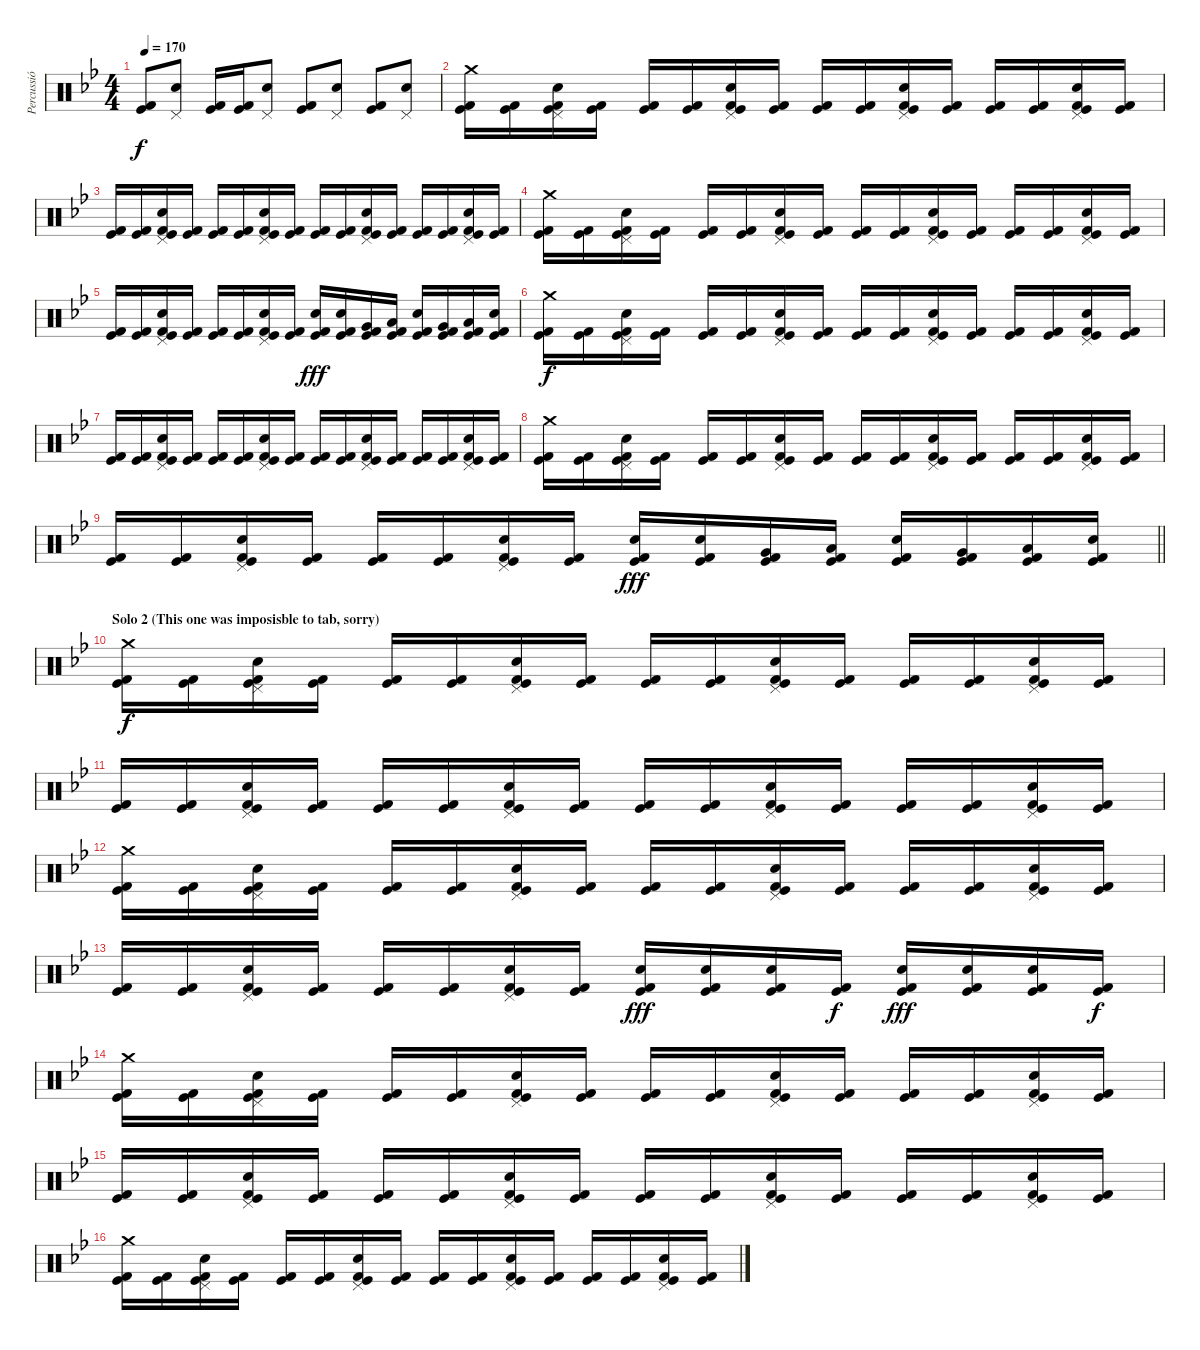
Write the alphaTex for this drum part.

\track ("Percussió" "Percussió") {instrument percussion}
\staff {score}
\articulation defaults
\ts (4 4)
\tempo 170
\clef neutral
\ks gminor
("Kick (hit)" "Kick (hit) 2").8{dy f} ("Pedal Hi-Hat (hit)" "Electric Snare (hit)").8 ("Kick (hit)" "Kick (hit) 2").16 ("Kick (hit)" "Kick (hit) 2").16 ("Pedal Hi-Hat (hit)" "Electric Snare (hit)").8 ("Kick (hit)" "Kick (hit) 2").8 ("Pedal Hi-Hat (hit)" "Electric Snare (hit)").8 ("Kick (hit)" "Kick (hit) 2").8 ("Pedal Hi-Hat (hit)" "Electric Snare (hit)").8 |
("Crash medium (hit)" "Kick (hit)" "Kick (hit) 2").16 ("Kick (hit)" "Kick (hit) 2").16 ("Pedal Hi-Hat (hit)" "Electric Snare (hit)" "Kick (hit)" "Kick (hit) 2").16 ("Kick (hit)" "Kick (hit) 2").16 ("Kick (hit)" "Kick (hit) 2").16 ("Kick (hit)" "Kick (hit) 2").16 ("Pedal Hi-Hat (hit)" "Electric Snare (hit)" "Kick (hit)" "Kick (hit) 2").16 ("Kick (hit)" "Kick (hit) 2").16 ("Kick (hit)" "Kick (hit) 2").16 ("Kick (hit)" "Kick (hit) 2").16 ("Pedal Hi-Hat (hit)" "Electric Snare (hit)" "Kick (hit)" "Kick (hit) 2").16 ("Kick (hit)" "Kick (hit) 2").16 ("Kick (hit)" "Kick (hit) 2").16 ("Kick (hit)" "Kick (hit) 2").16 ("Pedal Hi-Hat (hit)" "Electric Snare (hit)" "Kick (hit)" "Kick (hit) 2").16 ("Kick (hit)" "Kick (hit) 2").16 |
("Kick (hit)" "Kick (hit) 2").16 ("Kick (hit)" "Kick (hit) 2").16 ("Pedal Hi-Hat (hit)" "Electric Snare (hit)" "Kick (hit)" "Kick (hit) 2").16 ("Kick (hit)" "Kick (hit) 2").16 ("Kick (hit)" "Kick (hit) 2").16 ("Kick (hit)" "Kick (hit) 2").16 ("Pedal Hi-Hat (hit)" "Electric Snare (hit)" "Kick (hit)" "Kick (hit) 2").16 ("Kick (hit)" "Kick (hit) 2").16 ("Kick (hit)" "Kick (hit) 2").16 ("Kick (hit)" "Kick (hit) 2").16 ("Pedal Hi-Hat (hit)" "Electric Snare (hit)" "Kick (hit)" "Kick (hit) 2").16 ("Kick (hit)" "Kick (hit) 2").16 ("Kick (hit)" "Kick (hit) 2").16 ("Kick (hit)" "Kick (hit) 2").16 ("Pedal Hi-Hat (hit)" "Electric Snare (hit)" "Kick (hit)" "Kick (hit) 2").16 ("Kick (hit)" "Kick (hit) 2").16 |
("Crash medium (hit)" "Kick (hit)" "Kick (hit) 2").16 ("Kick (hit)" "Kick (hit) 2").16 ("Pedal Hi-Hat (hit)" "Electric Snare (hit)" "Kick (hit)" "Kick (hit) 2").16 ("Kick (hit)" "Kick (hit) 2").16 ("Kick (hit)" "Kick (hit) 2").16 ("Kick (hit)" "Kick (hit) 2").16 ("Pedal Hi-Hat (hit)" "Electric Snare (hit)" "Kick (hit)" "Kick (hit) 2").16 ("Kick (hit)" "Kick (hit) 2").16 ("Kick (hit)" "Kick (hit) 2").16 ("Kick (hit)" "Kick (hit) 2").16 ("Pedal Hi-Hat (hit)" "Electric Snare (hit)" "Kick (hit)" "Kick (hit) 2").16 ("Kick (hit)" "Kick (hit) 2").16 ("Kick (hit)" "Kick (hit) 2").16 ("Kick (hit)" "Kick (hit) 2").16 ("Pedal Hi-Hat (hit)" "Electric Snare (hit)" "Kick (hit)" "Kick (hit) 2").16 ("Kick (hit)" "Kick (hit) 2").16 |
("Kick (hit)" "Kick (hit) 2").16 ("Kick (hit)" "Kick (hit) 2").16 ("Pedal Hi-Hat (hit)" "Electric Snare (hit)" "Kick (hit)" "Kick (hit) 2").16 ("Kick (hit)" "Kick (hit) 2").16 ("Kick (hit)" "Kick (hit) 2").16 ("Kick (hit)" "Kick (hit) 2").16 ("Pedal Hi-Hat (hit)" "Electric Snare (hit)" "Kick (hit)" "Kick (hit) 2").16 ("Kick (hit)" "Kick (hit) 2").16 ("Electric Snare (hit)" "Kick (hit)" "Kick (hit) 2").16{dy fff} ("Electric Snare (hit)" "Kick (hit)" "Kick (hit) 2").16 ("Very Low Tom (hit)" "Kick (hit)" "Kick (hit) 2").16 ("Low Tom (hit)" "Kick (hit)" "Kick (hit) 2").16 ("Electric Snare (hit)" "Kick (hit)" "Kick (hit) 2").16 ("Very Low Tom (hit)" "Kick (hit)" "Kick (hit) 2").16 ("Low Floor Tom (hit)" "Kick (hit)" "Kick (hit) 2").16 ("Electric Snare (hit)" "Kick (hit)" "Kick (hit) 2").16 |
("Crash medium (hit)" "Kick (hit)" "Kick (hit) 2").16{dy f} ("Kick (hit)" "Kick (hit) 2").16 ("Pedal Hi-Hat (hit)" "Electric Snare (hit)" "Kick (hit)" "Kick (hit) 2").16 ("Kick (hit)" "Kick (hit) 2").16 ("Kick (hit)" "Kick (hit) 2").16 ("Kick (hit)" "Kick (hit) 2").16 ("Pedal Hi-Hat (hit)" "Electric Snare (hit)" "Kick (hit)" "Kick (hit) 2").16 ("Kick (hit)" "Kick (hit) 2").16 ("Kick (hit)" "Kick (hit) 2").16 ("Kick (hit)" "Kick (hit) 2").16 ("Pedal Hi-Hat (hit)" "Electric Snare (hit)" "Kick (hit)" "Kick (hit) 2").16 ("Kick (hit)" "Kick (hit) 2").16 ("Kick (hit)" "Kick (hit) 2").16 ("Kick (hit)" "Kick (hit) 2").16 ("Pedal Hi-Hat (hit)" "Electric Snare (hit)" "Kick (hit)" "Kick (hit) 2").16 ("Kick (hit)" "Kick (hit) 2").16 |
("Kick (hit)" "Kick (hit) 2").16 ("Kick (hit)" "Kick (hit) 2").16 ("Pedal Hi-Hat (hit)" "Electric Snare (hit)" "Kick (hit)" "Kick (hit) 2").16 ("Kick (hit)" "Kick (hit) 2").16 ("Kick (hit)" "Kick (hit) 2").16 ("Kick (hit)" "Kick (hit) 2").16 ("Pedal Hi-Hat (hit)" "Electric Snare (hit)" "Kick (hit)" "Kick (hit) 2").16 ("Kick (hit)" "Kick (hit) 2").16 ("Kick (hit)" "Kick (hit) 2").16 ("Kick (hit)" "Kick (hit) 2").16 ("Pedal Hi-Hat (hit)" "Electric Snare (hit)" "Kick (hit)" "Kick (hit) 2").16 ("Kick (hit)" "Kick (hit) 2").16 ("Kick (hit)" "Kick (hit) 2").16 ("Kick (hit)" "Kick (hit) 2").16 ("Pedal Hi-Hat (hit)" "Electric Snare (hit)" "Kick (hit)" "Kick (hit) 2").16 ("Kick (hit)" "Kick (hit) 2").16 |
("Crash medium (hit)" "Kick (hit)" "Kick (hit) 2").16 ("Kick (hit)" "Kick (hit) 2").16 ("Pedal Hi-Hat (hit)" "Electric Snare (hit)" "Kick (hit)" "Kick (hit) 2").16 ("Kick (hit)" "Kick (hit) 2").16 ("Kick (hit)" "Kick (hit) 2").16 ("Kick (hit)" "Kick (hit) 2").16 ("Pedal Hi-Hat (hit)" "Electric Snare (hit)" "Kick (hit)" "Kick (hit) 2").16 ("Kick (hit)" "Kick (hit) 2").16 ("Kick (hit)" "Kick (hit) 2").16 ("Kick (hit)" "Kick (hit) 2").16 ("Pedal Hi-Hat (hit)" "Electric Snare (hit)" "Kick (hit)" "Kick (hit) 2").16 ("Kick (hit)" "Kick (hit) 2").16 ("Kick (hit)" "Kick (hit) 2").16 ("Kick (hit)" "Kick (hit) 2").16 ("Pedal Hi-Hat (hit)" "Electric Snare (hit)" "Kick (hit)" "Kick (hit) 2").16 ("Kick (hit)" "Kick (hit) 2").16 |
\barLineRight lightlight
("Kick (hit)" "Kick (hit) 2").16 ("Kick (hit)" "Kick (hit) 2").16 ("Pedal Hi-Hat (hit)" "Electric Snare (hit)" "Kick (hit)" "Kick (hit) 2").16 ("Kick (hit)" "Kick (hit) 2").16 ("Kick (hit)" "Kick (hit) 2").16 ("Kick (hit)" "Kick (hit) 2").16 ("Pedal Hi-Hat (hit)" "Electric Snare (hit)" "Kick (hit)" "Kick (hit) 2").16 ("Kick (hit)" "Kick (hit) 2").16 ("Electric Snare (hit)" "Kick (hit)" "Kick (hit) 2").16{dy fff} ("Electric Snare (hit)" "Kick (hit)" "Kick (hit) 2").16 ("Very Low Tom (hit)" "Kick (hit)" "Kick (hit) 2").16 ("Low Tom (hit)" "Kick (hit)" "Kick (hit) 2").16 ("Electric Snare (hit)" "Kick (hit)" "Kick (hit) 2").16 ("Very Low Tom (hit)" "Kick (hit)" "Kick (hit) 2").16 ("Low Floor Tom (hit)" "Kick (hit)" "Kick (hit) 2").16 ("Electric Snare (hit)" "Kick (hit)" "Kick (hit) 2").16 |
\section ("" "Solo 2 (This one was imposisble to tab, sorry)")
("Crash medium (hit)" "Kick (hit)" "Kick (hit) 2").16{dy f} ("Kick (hit)" "Kick (hit) 2").16 ("Pedal Hi-Hat (hit)" "Electric Snare (hit)" "Kick (hit)" "Kick (hit) 2").16 ("Kick (hit)" "Kick (hit) 2").16 ("Kick (hit)" "Kick (hit) 2").16 ("Kick (hit)" "Kick (hit) 2").16 ("Pedal Hi-Hat (hit)" "Electric Snare (hit)" "Kick (hit)" "Kick (hit) 2").16 ("Kick (hit)" "Kick (hit) 2").16 ("Kick (hit)" "Kick (hit) 2").16 ("Kick (hit)" "Kick (hit) 2").16 ("Pedal Hi-Hat (hit)" "Electric Snare (hit)" "Kick (hit)" "Kick (hit) 2").16 ("Kick (hit)" "Kick (hit) 2").16 ("Kick (hit)" "Kick (hit) 2").16 ("Kick (hit)" "Kick (hit) 2").16 ("Pedal Hi-Hat (hit)" "Electric Snare (hit)" "Kick (hit)" "Kick (hit) 2").16 ("Kick (hit)" "Kick (hit) 2").16 |
("Kick (hit)" "Kick (hit) 2").16 ("Kick (hit)" "Kick (hit) 2").16 ("Pedal Hi-Hat (hit)" "Electric Snare (hit)" "Kick (hit)" "Kick (hit) 2").16 ("Kick (hit)" "Kick (hit) 2").16 ("Kick (hit)" "Kick (hit) 2").16 ("Kick (hit)" "Kick (hit) 2").16 ("Pedal Hi-Hat (hit)" "Electric Snare (hit)" "Kick (hit)" "Kick (hit) 2").16 ("Kick (hit)" "Kick (hit) 2").16 ("Kick (hit)" "Kick (hit) 2").16 ("Kick (hit)" "Kick (hit) 2").16 ("Pedal Hi-Hat (hit)" "Electric Snare (hit)" "Kick (hit)" "Kick (hit) 2").16 ("Kick (hit)" "Kick (hit) 2").16 ("Kick (hit)" "Kick (hit) 2").16 ("Kick (hit)" "Kick (hit) 2").16 ("Pedal Hi-Hat (hit)" "Electric Snare (hit)" "Kick (hit)" "Kick (hit) 2").16 ("Kick (hit)" "Kick (hit) 2").16 |
("Crash medium (hit)" "Kick (hit)" "Kick (hit) 2").16 ("Kick (hit)" "Kick (hit) 2").16 ("Pedal Hi-Hat (hit)" "Electric Snare (hit)" "Kick (hit)" "Kick (hit) 2").16 ("Kick (hit)" "Kick (hit) 2").16 ("Kick (hit)" "Kick (hit) 2").16 ("Kick (hit)" "Kick (hit) 2").16 ("Pedal Hi-Hat (hit)" "Electric Snare (hit)" "Kick (hit)" "Kick (hit) 2").16 ("Kick (hit)" "Kick (hit) 2").16 ("Kick (hit)" "Kick (hit) 2").16 ("Kick (hit)" "Kick (hit) 2").16 ("Pedal Hi-Hat (hit)" "Electric Snare (hit)" "Kick (hit)" "Kick (hit) 2").16 ("Kick (hit)" "Kick (hit) 2").16 ("Kick (hit)" "Kick (hit) 2").16 ("Kick (hit)" "Kick (hit) 2").16 ("Pedal Hi-Hat (hit)" "Electric Snare (hit)" "Kick (hit)" "Kick (hit) 2").16 ("Kick (hit)" "Kick (hit) 2").16 |
("Kick (hit)" "Kick (hit) 2").16 ("Kick (hit)" "Kick (hit) 2").16 ("Pedal Hi-Hat (hit)" "Electric Snare (hit)" "Kick (hit)" "Kick (hit) 2").16 ("Kick (hit)" "Kick (hit) 2").16 ("Kick (hit)" "Kick (hit) 2").16 ("Kick (hit)" "Kick (hit) 2").16 ("Pedal Hi-Hat (hit)" "Electric Snare (hit)" "Kick (hit)" "Kick (hit) 2").16 ("Kick (hit)" "Kick (hit) 2").16 ("Electric Snare (hit)" "Kick (hit)" "Kick (hit) 2").16{dy fff} ("Electric Snare (hit)" "Kick (hit)" "Kick (hit) 2").16 ("Electric Snare (hit)" "Kick (hit)" "Kick (hit) 2").16 ("Kick (hit)" "Kick (hit) 2").16{dy f} ("Electric Snare (hit)" "Kick (hit)" "Kick (hit) 2").16{dy fff} ("Electric Snare (hit)" "Kick (hit)" "Kick (hit) 2").16 ("Electric Snare (hit)" "Kick (hit)" "Kick (hit) 2").16 ("Kick (hit)" "Kick (hit) 2").16{dy f} |
("Crash medium (hit)" "Kick (hit)" "Kick (hit) 2").16 ("Kick (hit)" "Kick (hit) 2").16 ("Pedal Hi-Hat (hit)" "Electric Snare (hit)" "Kick (hit)" "Kick (hit) 2").16 ("Kick (hit)" "Kick (hit) 2").16 ("Kick (hit)" "Kick (hit) 2").16 ("Kick (hit)" "Kick (hit) 2").16 ("Pedal Hi-Hat (hit)" "Electric Snare (hit)" "Kick (hit)" "Kick (hit) 2").16 ("Kick (hit)" "Kick (hit) 2").16 ("Kick (hit)" "Kick (hit) 2").16 ("Kick (hit)" "Kick (hit) 2").16 ("Pedal Hi-Hat (hit)" "Electric Snare (hit)" "Kick (hit)" "Kick (hit) 2").16 ("Kick (hit)" "Kick (hit) 2").16 ("Kick (hit)" "Kick (hit) 2").16 ("Kick (hit)" "Kick (hit) 2").16 ("Pedal Hi-Hat (hit)" "Electric Snare (hit)" "Kick (hit)" "Kick (hit) 2").16 ("Kick (hit)" "Kick (hit) 2").16 |
("Kick (hit)" "Kick (hit) 2").16 ("Kick (hit)" "Kick (hit) 2").16 ("Pedal Hi-Hat (hit)" "Electric Snare (hit)" "Kick (hit)" "Kick (hit) 2").16 ("Kick (hit)" "Kick (hit) 2").16 ("Kick (hit)" "Kick (hit) 2").16 ("Kick (hit)" "Kick (hit) 2").16 ("Pedal Hi-Hat (hit)" "Electric Snare (hit)" "Kick (hit)" "Kick (hit) 2").16 ("Kick (hit)" "Kick (hit) 2").16 ("Kick (hit)" "Kick (hit) 2").16 ("Kick (hit)" "Kick (hit) 2").16 ("Pedal Hi-Hat (hit)" "Electric Snare (hit)" "Kick (hit)" "Kick (hit) 2").16 ("Kick (hit)" "Kick (hit) 2").16 ("Kick (hit)" "Kick (hit) 2").16 ("Kick (hit)" "Kick (hit) 2").16 ("Pedal Hi-Hat (hit)" "Electric Snare (hit)" "Kick (hit)" "Kick (hit) 2").16 ("Kick (hit)" "Kick (hit) 2").16 |
("Crash medium (hit)" "Kick (hit)" "Kick (hit) 2").16 ("Kick (hit)" "Kick (hit) 2").16 ("Pedal Hi-Hat (hit)" "Electric Snare (hit)" "Kick (hit)" "Kick (hit) 2").16 ("Kick (hit)" "Kick (hit) 2").16 ("Kick (hit)" "Kick (hit) 2").16 ("Kick (hit)" "Kick (hit) 2").16 ("Pedal Hi-Hat (hit)" "Electric Snare (hit)" "Kick (hit)" "Kick (hit) 2").16 ("Kick (hit)" "Kick (hit) 2").16 ("Kick (hit)" "Kick (hit) 2").16 ("Kick (hit)" "Kick (hit) 2").16 ("Pedal Hi-Hat (hit)" "Electric Snare (hit)" "Kick (hit)" "Kick (hit) 2").16 ("Kick (hit)" "Kick (hit) 2").16 ("Kick (hit)" "Kick (hit) 2").16 ("Kick (hit)" "Kick (hit) 2").16 ("Pedal Hi-Hat (hit)" "Electric Snare (hit)" "Kick (hit)" "Kick (hit) 2").16 ("Kick (hit)" "Kick (hit) 2").16
